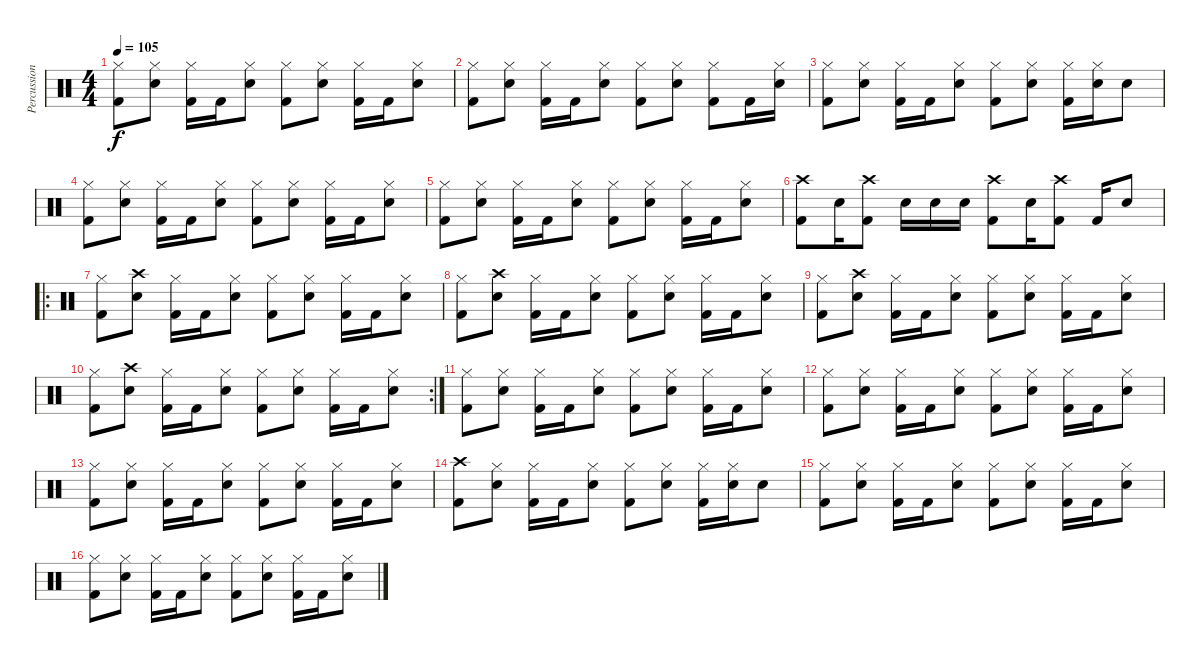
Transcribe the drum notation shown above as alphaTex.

\track ("Percussion" "Percussion") {instrument percussion}
\staff {score}
\articulation defaults
\ts (4 4)
\tempo 105
\clef neutral
\ks c
("Hi-Hat (closed)" "Kick (hit) 2").8{dy f} ("Hi-Hat (closed)" "Snare (hit) 2").8 ("Hi-Hat (closed)" "Kick (hit) 2").16 "Kick (hit) 2".16 ("Hi-Hat (closed)" "Snare (hit) 2").8 ("Hi-Hat (closed)" "Kick (hit) 2").8 ("Hi-Hat (closed)" "Snare (hit) 2").8 ("Hi-Hat (closed)" "Kick (hit) 2").16 "Kick (hit) 2".16 ("Hi-Hat (closed)" "Snare (hit) 2").8 |
("Hi-Hat (closed)" "Kick (hit) 2").8 ("Hi-Hat (closed)" "Snare (hit) 2").8 ("Hi-Hat (closed)" "Kick (hit) 2").16 "Kick (hit) 2".16 ("Hi-Hat (closed)" "Snare (hit) 2").8 ("Hi-Hat (closed)" "Kick (hit) 2").8 ("Hi-Hat (closed)" "Snare (hit) 2").8 ("Hi-Hat (closed)" "Kick (hit) 2").8 "Kick (hit) 2".16 ("Hi-Hat (closed)" "Snare (hit) 2").16 |
("Hi-Hat (closed)" "Kick (hit) 2").8 ("Hi-Hat (closed)" "Snare (hit) 2").8 ("Hi-Hat (closed)" "Kick (hit) 2").16 "Kick (hit) 2".16 ("Hi-Hat (closed)" "Snare (hit) 2").8 ("Hi-Hat (closed)" "Kick (hit) 2").8 ("Hi-Hat (closed)" "Snare (hit) 2").8 ("Hi-Hat (closed)" "Kick (hit) 2").16 ("Hi-Hat (closed)" "Snare (hit) 2").16 "Snare (hit) 2".8 |
("Hi-Hat (closed)" "Kick (hit) 2").8 ("Hi-Hat (closed)" "Snare (hit) 2").8 ("Hi-Hat (closed)" "Kick (hit) 2").16 "Kick (hit) 2".16 ("Hi-Hat (closed)" "Snare (hit) 2").8 ("Hi-Hat (closed)" "Kick (hit) 2").8 ("Hi-Hat (closed)" "Snare (hit) 2").8 ("Hi-Hat (closed)" "Kick (hit) 2").16 "Kick (hit) 2".16 ("Hi-Hat (closed)" "Snare (hit) 2").8 |
("Hi-Hat (closed)" "Kick (hit) 2").8 ("Hi-Hat (closed)" "Snare (hit) 2").8 ("Hi-Hat (closed)" "Kick (hit) 2").16 "Kick (hit) 2".16 ("Hi-Hat (closed)" "Snare (hit) 2").8 ("Hi-Hat (closed)" "Kick (hit) 2").8 ("Hi-Hat (closed)" "Snare (hit) 2").8 ("Hi-Hat (closed)" "Kick (hit) 2").16 "Kick (hit) 2".16 ("Hi-Hat (closed)" "Snare (hit) 2").8 |
("Crash high (hit)" "Kick (hit) 2").8 "Snare (hit) 2".16 ("Crash high (hit)" "Kick (hit) 2").8 "Snare (hit) 2".16 "Snare (hit) 2".16 "Snare (hit) 2".16 ("Crash high (hit)" "Kick (hit) 2").8 "Snare (hit) 2".16 ("Crash high (hit)" "Kick (hit) 2").8 "Kick (hit) 2".16 "Snare (hit) 2".8 |
\ro
("Hi-Hat (closed)" "Kick (hit) 2").8 ("Crash high (hit)" "Snare (hit) 2").8 ("Hi-Hat (closed)" "Kick (hit) 2").16 "Kick (hit) 2".16 ("Hi-Hat (closed)" "Snare (hit) 2").8 ("Hi-Hat (closed)" "Kick (hit) 2").8 ("Hi-Hat (closed)" "Snare (hit) 2").8 ("Hi-Hat (closed)" "Kick (hit) 2").16 "Kick (hit) 2".16 ("Hi-Hat (closed)" "Snare (hit) 2").8 |
("Hi-Hat (closed)" "Kick (hit) 2").8 ("Crash high (hit)" "Snare (hit) 2").8 ("Hi-Hat (closed)" "Kick (hit) 2").16 "Kick (hit) 2".16 ("Hi-Hat (closed)" "Snare (hit) 2").8 ("Hi-Hat (closed)" "Kick (hit) 2").8 ("Hi-Hat (closed)" "Snare (hit) 2").8 ("Hi-Hat (closed)" "Kick (hit) 2").16 "Kick (hit) 2".16 ("Hi-Hat (closed)" "Snare (hit) 2").8 |
("Hi-Hat (closed)" "Kick (hit) 2").8 ("Crash high (hit)" "Snare (hit) 2").8 ("Hi-Hat (closed)" "Kick (hit) 2").16 "Kick (hit) 2".16 ("Hi-Hat (closed)" "Snare (hit) 2").8 ("Hi-Hat (closed)" "Kick (hit) 2").8 ("Hi-Hat (closed)" "Snare (hit) 2").8 ("Hi-Hat (closed)" "Kick (hit) 2").16 "Kick (hit) 2".16 ("Hi-Hat (closed)" "Snare (hit) 2").8 |
\rc 2
("Hi-Hat (closed)" "Kick (hit) 2").8 ("Crash high (hit)" "Snare (hit) 2").8 ("Hi-Hat (closed)" "Kick (hit) 2").16 "Kick (hit) 2".16 ("Hi-Hat (closed)" "Snare (hit) 2").8 ("Hi-Hat (closed)" "Kick (hit) 2").8 ("Hi-Hat (closed)" "Snare (hit) 2").8 ("Hi-Hat (closed)" "Kick (hit) 2").16 "Kick (hit) 2".16 ("Hi-Hat (closed)" "Snare (hit) 2").8 |
("Hi-Hat (closed)" "Kick (hit) 2").8 ("Hi-Hat (closed)" "Snare (hit) 2").8 ("Hi-Hat (closed)" "Kick (hit) 2").16 "Kick (hit) 2".16 ("Hi-Hat (closed)" "Snare (hit) 2").8 ("Hi-Hat (closed)" "Kick (hit) 2").8 ("Hi-Hat (closed)" "Snare (hit) 2").8 ("Hi-Hat (closed)" "Kick (hit) 2").16 "Kick (hit) 2".16 ("Hi-Hat (closed)" "Snare (hit) 2").8 |
("Hi-Hat (closed)" "Kick (hit) 2").8 ("Hi-Hat (closed)" "Snare (hit) 2").8 ("Hi-Hat (closed)" "Kick (hit) 2").16 "Kick (hit) 2".16 ("Hi-Hat (closed)" "Snare (hit) 2").8 ("Hi-Hat (closed)" "Kick (hit) 2").8 ("Hi-Hat (closed)" "Snare (hit) 2").8 ("Hi-Hat (closed)" "Kick (hit) 2").16 "Kick (hit) 2".16 ("Hi-Hat (closed)" "Snare (hit) 2").8 |
("Hi-Hat (closed)" "Kick (hit) 2").8 ("Hi-Hat (closed)" "Snare (hit) 2").8 ("Hi-Hat (closed)" "Kick (hit) 2").16 "Kick (hit) 2".16 ("Hi-Hat (closed)" "Snare (hit) 2").8 ("Hi-Hat (closed)" "Kick (hit) 2").8 ("Hi-Hat (closed)" "Snare (hit) 2").8 ("Hi-Hat (closed)" "Kick (hit) 2").16 "Kick (hit) 2".16 ("Hi-Hat (closed)" "Snare (hit) 2").8 |
("Crash high (hit)" "Kick (hit) 2").8 ("Hi-Hat (closed)" "Snare (hit) 2").8 ("Hi-Hat (closed)" "Kick (hit) 2").16 "Kick (hit) 2".16 ("Hi-Hat (closed)" "Snare (hit) 2").8 ("Hi-Hat (closed)" "Kick (hit) 2").8 ("Hi-Hat (closed)" "Snare (hit) 2").8 ("Hi-Hat (closed)" "Kick (hit) 2").16 ("Hi-Hat (closed)" "Snare (hit) 2").16 "Snare (hit) 2".8 |
("Hi-Hat (closed)" "Kick (hit) 2").8 ("Hi-Hat (closed)" "Snare (hit) 2").8 ("Hi-Hat (closed)" "Kick (hit) 2").16 "Kick (hit) 2".16 ("Hi-Hat (closed)" "Snare (hit) 2").8 ("Hi-Hat (closed)" "Kick (hit) 2").8 ("Hi-Hat (closed)" "Snare (hit) 2").8 ("Hi-Hat (closed)" "Kick (hit) 2").16 "Kick (hit) 2".16 ("Hi-Hat (closed)" "Snare (hit) 2").8 |
("Hi-Hat (closed)" "Kick (hit) 2").8 ("Hi-Hat (closed)" "Snare (hit) 2").8 ("Hi-Hat (closed)" "Kick (hit) 2").16 "Kick (hit) 2".16 ("Hi-Hat (closed)" "Snare (hit) 2").8 ("Hi-Hat (closed)" "Kick (hit) 2").8 ("Hi-Hat (closed)" "Snare (hit) 2").8 ("Hi-Hat (closed)" "Kick (hit) 2").16 "Kick (hit) 2".16 ("Hi-Hat (closed)" "Snare (hit) 2").8
